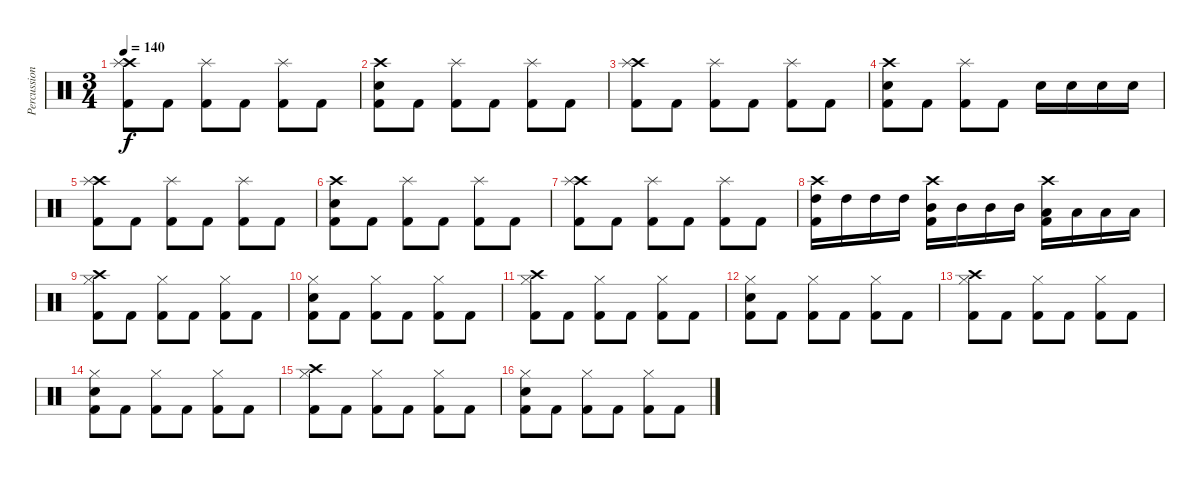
\track ("Percussion" "Percussion") {instrument percussion}
\staff {score}
\articulation defaults
\ts (3 4)
\tempo 140
\clef neutral
\ks c
("Crash high (hit)" "Splash (hit)" "Kick (hit) 2").8{dy f} "Kick (hit) 2".8 ("Splash (hit)" "Kick (hit) 2").8 "Kick (hit) 2".8 ("Splash (hit)" "Kick (hit) 2").8 "Kick (hit) 2".8 |
("Crash high (hit)" "Electric Snare (hit)" "Kick (hit) 2").8 "Kick (hit) 2".8 ("Splash (hit)" "Kick (hit) 2").8 "Kick (hit) 2".8 ("Splash (hit)" "Kick (hit) 2").8 "Kick (hit) 2".8 |
("Crash high (hit)" "Splash (hit)" "Kick (hit) 2").8 "Kick (hit) 2".8 ("Splash (hit)" "Kick (hit) 2").8 "Kick (hit) 2".8 ("Splash (hit)" "Kick (hit) 2").8 "Kick (hit) 2".8 |
("Crash high (hit)" "Electric Snare (hit)" "Kick (hit) 2").8 "Kick (hit) 2".8 ("Splash (hit)" "Kick (hit) 2").8 "Kick (hit) 2".8 "Electric Snare (hit)".16 "Electric Snare (hit)".16 "Electric Snare (hit)".16 "Electric Snare (hit)".16 |
("Crash high (hit)" "Splash (hit)" "Kick (hit) 2").8 "Kick (hit) 2".8 ("Splash (hit)" "Kick (hit) 2").8 "Kick (hit) 2".8 ("Splash (hit)" "Kick (hit) 2").8 "Kick (hit) 2".8 |
("Crash high (hit)" "Electric Snare (hit)" "Kick (hit) 2").8 "Kick (hit) 2".8 ("Splash (hit)" "Kick (hit) 2").8 "Kick (hit) 2".8 ("Splash (hit)" "Kick (hit) 2").8 "Kick (hit) 2".8 |
("Crash high (hit)" "Splash (hit)" "Kick (hit) 2").8 "Kick (hit) 2".8 ("Splash (hit)" "Kick (hit) 2").8 "Kick (hit) 2".8 ("Splash (hit)" "Kick (hit) 2").8 "Kick (hit) 2".8 |
("Crash high (hit)" "High Tom (hit)" "Kick (hit) 2").16 "High Tom (hit)".16 "High Tom (hit)".16 "High Tom (hit)".16 ("Crash high (hit)" "Mid Tom (hit)" "Kick (hit) 2").16 "Mid Tom (hit)".16 "Mid Tom (hit)".16 "Mid Tom (hit)".16 ("Crash high (hit)" "Low Tom (hit)" "Kick (hit) 2").16 "Low Tom (hit)".16 "Low Tom (hit)".16 "Low Tom (hit)".16 |
("Crash high (hit)" "Hi-Hat (closed)" "Kick (hit) 2").8 "Kick (hit) 2".8 ("Hi-Hat (closed)" "Kick (hit) 2").8 "Kick (hit) 2".8 ("Hi-Hat (closed)" "Kick (hit) 2").8 "Kick (hit) 2".8 |
("Hi-Hat (closed)" "Electric Snare (hit)" "Kick (hit) 2").8 "Kick (hit) 2".8 ("Hi-Hat (closed)" "Kick (hit) 2").8 "Kick (hit) 2".8 ("Hi-Hat (closed)" "Kick (hit) 2").8 "Kick (hit) 2".8 |
("Crash high (hit)" "Hi-Hat (closed)" "Kick (hit) 2").8 "Kick (hit) 2".8 ("Hi-Hat (closed)" "Kick (hit) 2").8 "Kick (hit) 2".8 ("Hi-Hat (closed)" "Kick (hit) 2").8 "Kick (hit) 2".8 |
("Hi-Hat (closed)" "Electric Snare (hit)" "Kick (hit) 2").8 "Kick (hit) 2".8 ("Hi-Hat (closed)" "Kick (hit) 2").8 "Kick (hit) 2".8 ("Hi-Hat (closed)" "Kick (hit) 2").8 "Kick (hit) 2".8 |
("Crash high (hit)" "Hi-Hat (closed)" "Kick (hit) 2").8 "Kick (hit) 2".8 ("Hi-Hat (closed)" "Kick (hit) 2").8 "Kick (hit) 2".8 ("Hi-Hat (closed)" "Kick (hit) 2").8 "Kick (hit) 2".8 |
("Hi-Hat (closed)" "Electric Snare (hit)" "Kick (hit) 2").8 "Kick (hit) 2".8 ("Hi-Hat (closed)" "Kick (hit) 2").8 "Kick (hit) 2".8 ("Hi-Hat (closed)" "Kick (hit) 2").8 "Kick (hit) 2".8 |
("Crash high (hit)" "Hi-Hat (closed)" "Kick (hit) 2").8 "Kick (hit) 2".8 ("Hi-Hat (closed)" "Kick (hit) 2").8 "Kick (hit) 2".8 ("Hi-Hat (closed)" "Kick (hit) 2").8 "Kick (hit) 2".8 |
("Hi-Hat (closed)" "Electric Snare (hit)" "Kick (hit) 2").8 "Kick (hit) 2".8 ("Hi-Hat (closed)" "Kick (hit) 2").8 "Kick (hit) 2".8 ("Hi-Hat (closed)" "Kick (hit) 2").8 "Kick (hit) 2".8
